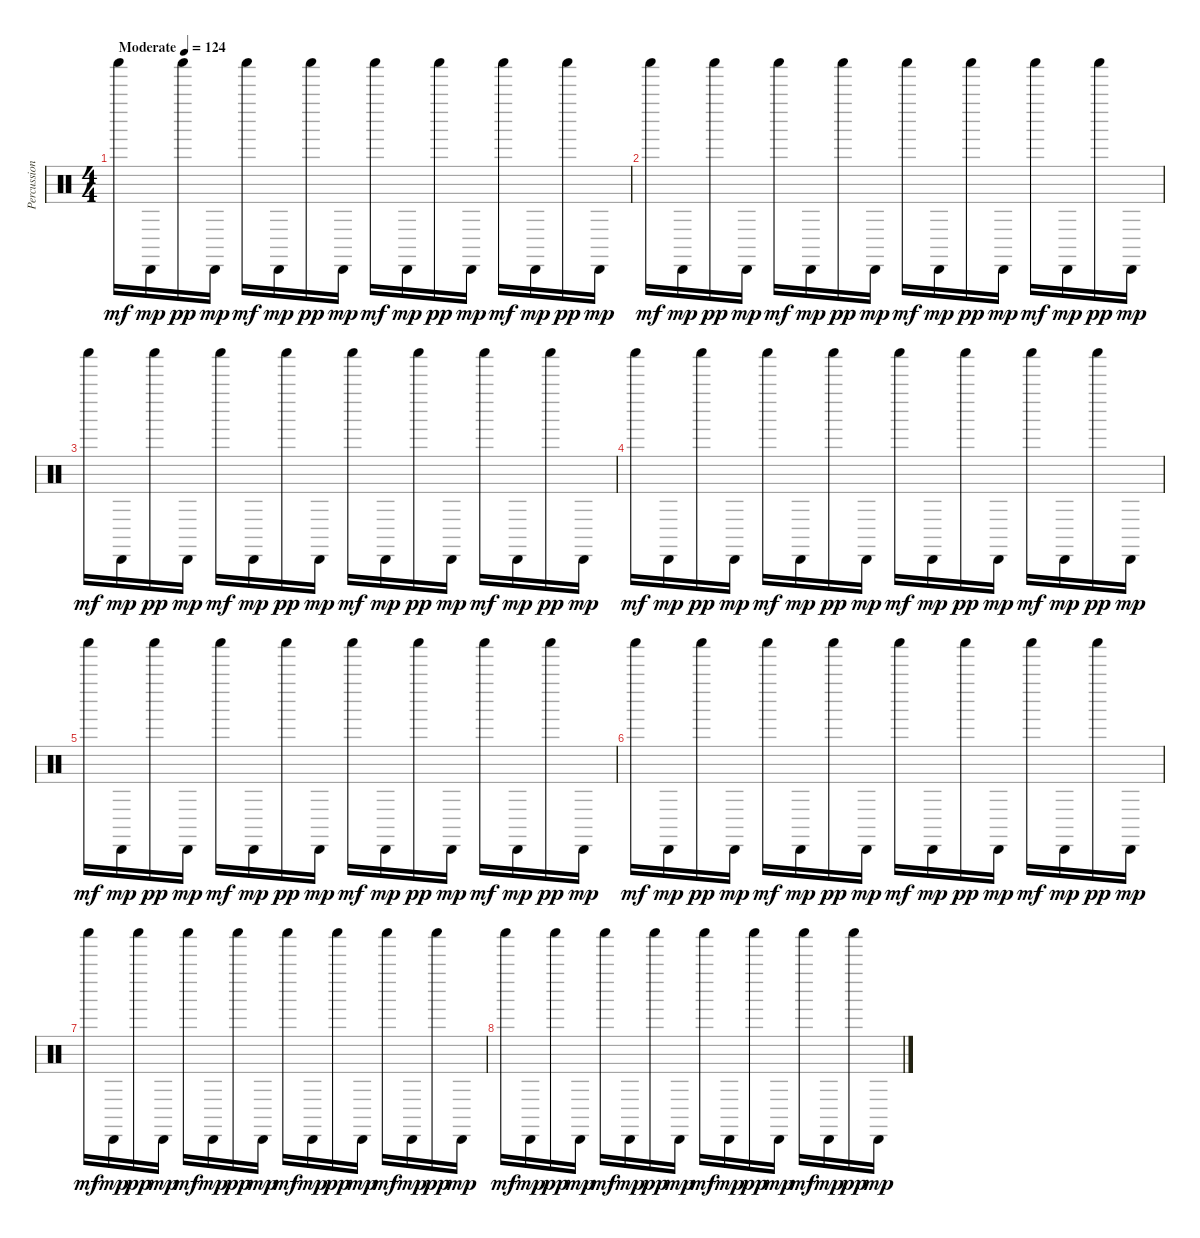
\track ("Percussion" "Percussion") {instrument percussion}
\staff {score}
\articulation defaults
\ts (4 4)
\tempo (124 "Moderate")
\clef neutral
\ks c "Shaker (hit)".16{dy mf} "Cabasa (hit)".16{dy mp} "Shaker (hit)".16{dy pp} "Cabasa (hit)".16{dy mp} "Shaker (hit)".16{dy mf} "Cabasa (hit)".16{dy mp} "Shaker (hit)".16{dy pp} "Cabasa (hit)".16{dy mp} "Shaker (hit)".16{dy mf} "Cabasa (hit)".16{dy mp} "Shaker (hit)".16{dy pp} "Cabasa (hit)".16{dy mp} "Shaker (hit)".16{dy mf} "Cabasa (hit)".16{dy mp} "Shaker (hit)".16{dy pp} "Cabasa (hit)".16{dy mp}
|
"Shaker (hit)".16{dy mf} "Cabasa (hit)".16{dy mp} "Shaker (hit)".16{dy pp} "Cabasa (hit)".16{dy mp} "Shaker (hit)".16{dy mf} "Cabasa (hit)".16{dy mp} "Shaker (hit)".16{dy pp} "Cabasa (hit)".16{dy mp} "Shaker (hit)".16{dy mf} "Cabasa (hit)".16{dy mp} "Shaker (hit)".16{dy pp} "Cabasa (hit)".16{dy mp} "Shaker (hit)".16{dy mf} "Cabasa (hit)".16{dy mp} "Shaker (hit)".16{dy pp} "Cabasa (hit)".16{dy mp} |
"Shaker (hit)".16{dy mf} "Cabasa (hit)".16{dy mp} "Shaker (hit)".16{dy pp} "Cabasa (hit)".16{dy mp} "Shaker (hit)".16{dy mf} "Cabasa (hit)".16{dy mp} "Shaker (hit)".16{dy pp} "Cabasa (hit)".16{dy mp} "Shaker (hit)".16{dy mf} "Cabasa (hit)".16{dy mp} "Shaker (hit)".16{dy pp} "Cabasa (hit)".16{dy mp} "Shaker (hit)".16{dy mf} "Cabasa (hit)".16{dy mp} "Shaker (hit)".16{dy pp} "Cabasa (hit)".16{dy mp} |
"Shaker (hit)".16{dy mf} "Cabasa (hit)".16{dy mp} "Shaker (hit)".16{dy pp} "Cabasa (hit)".16{dy mp} "Shaker (hit)".16{dy mf} "Cabasa (hit)".16{dy mp} "Shaker (hit)".16{dy pp} "Cabasa (hit)".16{dy mp} "Shaker (hit)".16{dy mf} "Cabasa (hit)".16{dy mp} "Shaker (hit)".16{dy pp} "Cabasa (hit)".16{dy mp} "Shaker (hit)".16{dy mf} "Cabasa (hit)".16{dy mp} "Shaker (hit)".16{dy pp} "Cabasa (hit)".16{dy mp} |
"Shaker (hit)".16{dy mf} "Cabasa (hit)".16{dy mp} "Shaker (hit)".16{dy pp} "Cabasa (hit)".16{dy mp} "Shaker (hit)".16{dy mf} "Cabasa (hit)".16{dy mp} "Shaker (hit)".16{dy pp} "Cabasa (hit)".16{dy mp} "Shaker (hit)".16{dy mf} "Cabasa (hit)".16{dy mp} "Shaker (hit)".16{dy pp} "Cabasa (hit)".16{dy mp} "Shaker (hit)".16{dy mf} "Cabasa (hit)".16{dy mp} "Shaker (hit)".16{dy pp} "Cabasa (hit)".16{dy mp} |
"Shaker (hit)".16{dy mf} "Cabasa (hit)".16{dy mp} "Shaker (hit)".16{dy pp} "Cabasa (hit)".16{dy mp} "Shaker (hit)".16{dy mf} "Cabasa (hit)".16{dy mp} "Shaker (hit)".16{dy pp} "Cabasa (hit)".16{dy mp} "Shaker (hit)".16{dy mf} "Cabasa (hit)".16{dy mp} "Shaker (hit)".16{dy pp} "Cabasa (hit)".16{dy mp} "Shaker (hit)".16{dy mf} "Cabasa (hit)".16{dy mp} "Shaker (hit)".16{dy pp} "Cabasa (hit)".16{dy mp} |
"Shaker (hit)".16{dy mf} "Cabasa (hit)".16{dy mp} "Shaker (hit)".16{dy pp} "Cabasa (hit)".16{dy mp} "Shaker (hit)".16{dy mf} "Cabasa (hit)".16{dy mp} "Shaker (hit)".16{dy pp} "Cabasa (hit)".16{dy mp} "Shaker (hit)".16{dy mf} "Cabasa (hit)".16{dy mp} "Shaker (hit)".16{dy pp} "Cabasa (hit)".16{dy mp} "Shaker (hit)".16{dy mf} "Cabasa (hit)".16{dy mp} "Shaker (hit)".16{dy pp} "Cabasa (hit)".16{dy mp} |
"Shaker (hit)".16{dy mf} "Cabasa (hit)".16{dy mp} "Shaker (hit)".16{dy pp} "Cabasa (hit)".16{dy mp} "Shaker (hit)".16{dy mf} "Cabasa (hit)".16{dy mp} "Shaker (hit)".16{dy pp} "Cabasa (hit)".16{dy mp} "Shaker (hit)".16{dy mf} "Cabasa (hit)".16{dy mp} "Shaker (hit)".16{dy pp} "Cabasa (hit)".16{dy mp} "Shaker (hit)".16{dy mf} "Cabasa (hit)".16{dy mp} "Shaker (hit)".16{dy pp} "Cabasa (hit)".16{dy mp}
